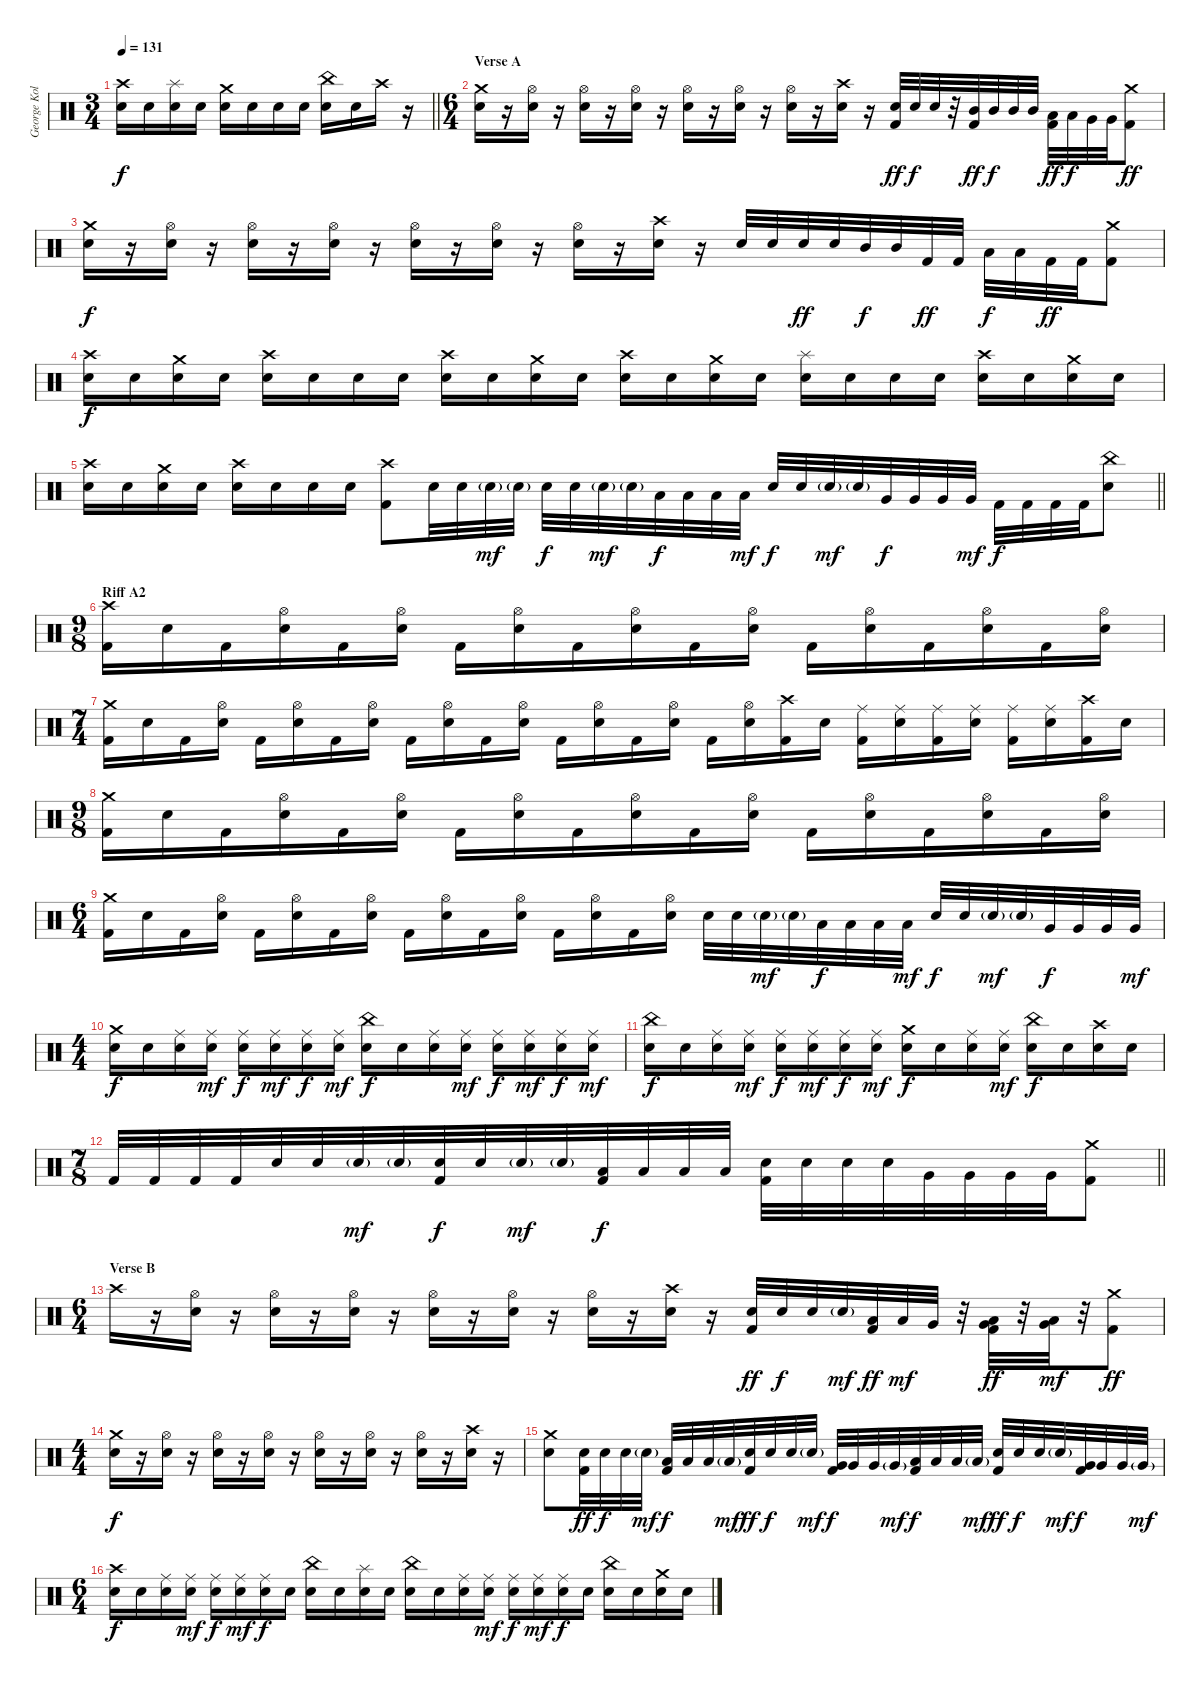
\track ("George Kollias" "George Kol") {instrument percussion}
\staff {score}
\articulation defaults
\ts (3 4)
\tempo 131
\clef neutral
\barLineRight lightlight
\ks c
("Crash high (hit)" "Electric Snare (hit)").16{dy f} "Electric Snare (hit)".16 ("Splash (hit)" "Electric Snare (hit)").16 "Electric Snare (hit)".16 ("Crash medium (hit)" "Electric Snare (hit)").16 "Electric Snare (hit)".16 "Electric Snare (hit)".16 "Electric Snare (hit)".16 ("China (hit)" "Electric Snare (hit)").16 "Electric Snare (hit)".16 "Crash high (hit)".16 r.16 |
\ts (6 4)
\section ("" "Verse A")
("Crash medium (hit)" "Electric Snare (hit)").16 r.16 ("Hi-Hat (open)" "Electric Snare (hit)").16 r.16 ("Hi-Hat (open)" "Electric Snare (hit)").16 r.16 ("Hi-Hat (open)" "Electric Snare (hit)").16 r.16 ("Hi-Hat (open)" "Electric Snare (hit)").16 r.16 ("Hi-Hat (open)" "Electric Snare (hit)").16 r.16 ("Hi-Hat (open)" "Electric Snare (hit)").16 r.16 ("Crash high (hit)" "Electric Snare (hit)").16 r.16 ("Electric Snare (hit)" "Kick (hit) 2").32{dy ff} "Electric Snare (hit)".32{dy f} "Electric Snare (hit)".32 r.32 ("Mid Tom (hit)" "Kick (hit) 2").32{dy ff} "Mid Tom (hit)".32{dy f} "Mid Tom (hit)".32 "Mid Tom (hit)".32 ("Low Tom (hit)" "Kick (hit) 2").32{dy ff} "Low Tom (hit)".32{dy f} "Very Low Tom (hit)".32 "Very Low Tom (hit)".32 ("Crash medium (hit)" "Kick (hit) 2").8{dy ff} |
("Crash medium (hit)" "Electric Snare (hit)").16{dy f} r.16 ("Hi-Hat (open)" "Electric Snare (hit)").16 r.16 ("Hi-Hat (open)" "Electric Snare (hit)").16 r.16 ("Hi-Hat (open)" "Electric Snare (hit)").16 r.16 ("Hi-Hat (open)" "Electric Snare (hit)").16 r.16 ("Hi-Hat (open)" "Electric Snare (hit)").16 r.16 ("Hi-Hat (open)" "Electric Snare (hit)").16 r.16 ("Crash high (hit)" "Electric Snare (hit)").16 r.16 "Electric Snare (hit)".32 "Electric Snare (hit)".32 "Electric Snare (hit)".32{dy ff} "Electric Snare (hit)".32 "Mid Tom (hit)".32{dy f} "Mid Tom (hit)".32 "Kick (hit) 2".32{dy ff} "Kick (hit) 2".32 "Low Tom (hit)".32{dy f} "Low Tom (hit)".32 "Kick (hit) 2".32{dy ff} "Kick (hit) 2".32 ("Crash medium (hit)" "Kick (hit) 2").8 |
("Crash high (hit)" "Electric Snare (hit)").16{dy f} "Electric Snare (hit)".16 ("Crash medium (hit)" "Electric Snare (hit)").16 "Electric Snare (hit)".16 ("Crash high (hit)" "Electric Snare (hit)").16 "Electric Snare (hit)".16 "Electric Snare (hit)".16 "Electric Snare (hit)".16 ("Crash high (hit)" "Electric Snare (hit)").16 "Electric Snare (hit)".16 ("Crash medium (hit)" "Electric Snare (hit)").16 "Electric Snare (hit)".16 ("Crash high (hit)" "Electric Snare (hit)").16 "Electric Snare (hit)".16 ("Crash medium (hit)" "Electric Snare (hit)").16 "Electric Snare (hit)".16 ("Splash (hit)" "Electric Snare (hit)").16 "Electric Snare (hit)".16 "Electric Snare (hit)".16 "Electric Snare (hit)".16 ("Crash high (hit)" "Electric Snare (hit)").16 "Electric Snare (hit)".16 ("Crash medium (hit)" "Electric Snare (hit)").16 "Electric Snare (hit)".16 |
\barLineRight lightlight
("Crash high (hit)" "Electric Snare (hit)").16 "Electric Snare (hit)".16 ("Crash medium (hit)" "Electric Snare (hit)").16 "Electric Snare (hit)".16 ("Crash high (hit)" "Electric Snare (hit)").16 "Electric Snare (hit)".16 "Electric Snare (hit)".16 "Electric Snare (hit)".16 ("Crash high (hit)" "Kick (hit) 2").8 "Electric Snare (hit)".32 "Electric Snare (hit)".32 "Electric Snare (hit)"{g}.32{dy mf} "Electric Snare (hit)"{g}.32 "Electric Snare (hit)".32{dy f} "Electric Snare (hit)".32 "Electric Snare (hit)"{g}.32{dy mf} "Electric Snare (hit)"{g}.32 "Low Tom (hit)".32{dy f} "Low Tom (hit)".32 "Low Tom (hit)".32 "Low Tom (hit)".32{dy mf} "Electric Snare (hit)".32{dy f} "Electric Snare (hit)".32 "Electric Snare (hit)"{g}.32{dy mf} "Electric Snare (hit)"{g}.32 "Very Low Tom (hit)".32{dy f} "Very Low Tom (hit)".32 "Very Low Tom (hit)".32 "Very Low Tom (hit)".32{dy mf} "Kick (hit) 2".32{dy f} "Kick (hit) 2".32 "Kick (hit) 2".32 "Kick (hit) 2".32 ("China (hit)" "Electric Snare (hit)").8 |
\ts (9 8)
\section ("" "Riff A2")
("Crash high (hit)" "Kick (hit) 2").16 "Electric Snare (hit)".16 "Kick (hit) 2".16 ("Hi-Hat (open)" "Electric Snare (hit)").16 "Kick (hit) 2".16 ("Hi-Hat (open)" "Electric Snare (hit)").16 "Kick (hit) 2".16 ("Hi-Hat (open)" "Electric Snare (hit)").16 "Kick (hit) 2".16 ("Hi-Hat (open)" "Electric Snare (hit)").16 "Kick (hit) 2".16 ("Hi-Hat (open)" "Electric Snare (hit)").16 "Kick (hit) 2".16 ("Hi-Hat (open)" "Electric Snare (hit)").16 "Kick (hit) 2".16 ("Hi-Hat (open)" "Electric Snare (hit)").16 "Kick (hit) 2".16 ("Hi-Hat (open)" "Electric Snare (hit)").16 |
\ts (7 4)
("Crash medium (hit)" "Kick (hit) 2").16 "Electric Snare (hit)".16 "Kick (hit) 2".16 ("Hi-Hat (open)" "Electric Snare (hit)").16 "Kick (hit) 2".16 ("Hi-Hat (open)" "Electric Snare (hit)").16 "Kick (hit) 2".16 ("Hi-Hat (open)" "Electric Snare (hit)").16 "Kick (hit) 2".16 ("Hi-Hat (open)" "Electric Snare (hit)").16 "Kick (hit) 2".16 ("Hi-Hat (open)" "Electric Snare (hit)").16 "Kick (hit) 2".16 ("Hi-Hat (open)" "Electric Snare (hit)").16 "Kick (hit) 2".16 ("Hi-Hat (open)" "Electric Snare (hit)").16 "Kick (hit) 2".16 ("Hi-Hat (open)" "Electric Snare (hit)").16 ("Crash high (hit)" "Kick (hit) 2").16 "Electric Snare (hit)".16 ("Ride (middle)" "Kick (hit) 2").16 ("Ride (middle)" "Electric Snare (hit)").16 ("Ride (middle)" "Kick (hit) 2").16 ("Ride (middle)" "Electric Snare (hit)").16 ("Ride (middle)" "Kick (hit) 2").16 ("Ride (middle)" "Electric Snare (hit)").16 ("Crash high (hit)" "Kick (hit) 2").16 "Electric Snare (hit)".16 |
\ts (9 8)
("Crash medium (hit)" "Kick (hit) 2").16 "Electric Snare (hit)".16 "Kick (hit) 2".16 ("Hi-Hat (open)" "Electric Snare (hit)").16 "Kick (hit) 2".16 ("Hi-Hat (open)" "Electric Snare (hit)").16 "Kick (hit) 2".16 ("Hi-Hat (open)" "Electric Snare (hit)").16 "Kick (hit) 2".16 ("Hi-Hat (open)" "Electric Snare (hit)").16 "Kick (hit) 2".16 ("Hi-Hat (open)" "Electric Snare (hit)").16 "Kick (hit) 2".16 ("Hi-Hat (open)" "Electric Snare (hit)").16 "Kick (hit) 2".16 ("Hi-Hat (open)" "Electric Snare (hit)").16 "Kick (hit) 2".16 ("Hi-Hat (open)" "Electric Snare (hit)").16 |
\ts (6 4)
("Crash medium (hit)" "Kick (hit) 2").16 "Electric Snare (hit)".16 "Kick (hit) 2".16 ("Hi-Hat (open)" "Electric Snare (hit)").16 "Kick (hit) 2".16 ("Hi-Hat (open)" "Electric Snare (hit)").16 "Kick (hit) 2".16 ("Hi-Hat (open)" "Electric Snare (hit)").16 "Kick (hit) 2".16 ("Hi-Hat (open)" "Electric Snare (hit)").16 "Kick (hit) 2".16 ("Hi-Hat (open)" "Electric Snare (hit)").16 "Kick (hit) 2".16 ("Hi-Hat (open)" "Electric Snare (hit)").16 "Kick (hit) 2".16 ("Hi-Hat (open)" "Electric Snare (hit)").16 "Electric Snare (hit)".32 "Electric Snare (hit)".32 "Electric Snare (hit)"{g}.32{dy mf} "Electric Snare (hit)"{g}.32 "Low Tom (hit)".32{dy f} "Low Tom (hit)".32 "Low Tom (hit)".32 "Low Tom (hit)".32{dy mf} "Electric Snare (hit)".32{dy f} "Electric Snare (hit)".32 "Electric Snare (hit)"{g}.32{dy mf} "Electric Snare (hit)"{g}.32 "Very Low Tom (hit)".32{dy f} "Very Low Tom (hit)".32 "Very Low Tom (hit)".32 "Very Low Tom (hit)".32{dy mf} |
\ts (4 4)
("Crash medium (hit)" "Electric Snare (hit)").16{dy f} "Electric Snare (hit)".16 ("Ride (middle)" "Electric Snare (hit)").16 ("Ride (middle)" "Electric Snare (hit)").16{dy mf} ("Ride (middle)" "Electric Snare (hit)").16{dy f} ("Ride (middle)" "Electric Snare (hit)").16{dy mf} ("Ride (middle)" "Electric Snare (hit)").16{dy f} ("Ride (middle)" "Electric Snare (hit)").16{dy mf} ("China (hit)" "Electric Snare (hit)").16{dy f} "Electric Snare (hit)".16 ("Ride (middle)" "Electric Snare (hit)").16 ("Ride (middle)" "Electric Snare (hit)").16{dy mf} ("Ride (middle)" "Electric Snare (hit)").16{dy f} ("Ride (middle)" "Electric Snare (hit)").16{dy mf} ("Ride (middle)" "Electric Snare (hit)").16{dy f} ("Ride (middle)" "Electric Snare (hit)").16{dy mf} |
("China (hit)" "Electric Snare (hit)").16{dy f} "Electric Snare (hit)".16 ("Ride (middle)" "Electric Snare (hit)").16 ("Ride (middle)" "Electric Snare (hit)").16{dy mf} ("Ride (middle)" "Electric Snare (hit)").16{dy f} ("Ride (middle)" "Electric Snare (hit)").16{dy mf} ("Ride (middle)" "Electric Snare (hit)").16{dy f} ("Ride (middle)" "Electric Snare (hit)").16{dy mf} ("Crash medium (hit)" "Electric Snare (hit)").16{dy f} "Electric Snare (hit)".16 ("Ride (middle)" "Electric Snare (hit)").16 ("Ride (middle)" "Electric Snare (hit)").16{dy mf} ("China (hit)" "Electric Snare (hit)").16{dy f} "Electric Snare (hit)".16 ("Crash high (hit)" "Electric Snare (hit)").16 "Electric Snare (hit)".16 |
\ts (7 8)
\barLineRight lightlight "Kick (hit) 2".32 "Kick (hit) 2".32 "Kick (hit) 2".32 "Kick (hit) 2".32 "Electric Snare (hit)".32 "Electric Snare (hit)".32 "Electric Snare (hit)"{g}.32{dy mf} "Electric Snare (hit)"{g}.32
("Electric Snare (hit)" "Kick (hit) 2").32{dy f} "Electric Snare (hit)".32 "Electric Snare (hit)"{g}.32{dy mf} "Electric Snare (hit)"{g}.32 ("Low Tom (hit)" "Kick (hit) 2").32{dy f} "Low Tom (hit)".32 "Low Tom (hit)".32 "Low Tom (hit)".32 ("Electric Snare (hit)" "Kick (hit) 2").32 "Electric Snare (hit)".32 "Electric Snare (hit)".32 "Electric Snare (hit)".32 "Very Low Tom (hit)".32 "Very Low Tom (hit)".32 "Very Low Tom (hit)".32 "Very Low Tom (hit)".32 ("Crash medium (hit)" "Kick (hit) 2").8 |
\ts (6 4)
\section ("" "Verse B")
"Crash high (hit)".16 r.16 ("Hi-Hat (open)" "Electric Snare (hit)").16 r.16 ("Hi-Hat (open)" "Electric Snare (hit)").16 r.16 ("Hi-Hat (open)" "Electric Snare (hit)").16 r.16 ("Hi-Hat (open)" "Electric Snare (hit)").16 r.16 ("Hi-Hat (open)" "Electric Snare (hit)").16 r.16 ("Hi-Hat (open)" "Electric Snare (hit)").16 r.16 ("Crash high (hit)" "Electric Snare (hit)").16 r.16 ("Electric Snare (hit)" "Kick (hit) 2").32{dy ff} "Electric Snare (hit)".32{dy f} "Electric Snare (hit)".32 "Electric Snare (hit)"{g}.32{dy mf} ("Low Tom (hit)" "Kick (hit) 2").32{dy ff} "Low Tom (hit)".32{dy mf} "Very Low Tom (hit)".32 r.32 ("Low Tom (hit)" "Very Low Tom (hit)" "Kick (hit) 2").32{dy ff} r.32 ("Very Low Tom (hit)" "Low Floor Tom (hit)").32{dy mf} r.32 ("Crash medium (hit)" "Kick (hit) 2").8{dy ff} |
\ts (4 4)
("Crash medium (hit)" "Electric Snare (hit)").16{dy f} r.16 ("Hi-Hat (open)" "Electric Snare (hit)").16 r.16 ("Hi-Hat (open)" "Electric Snare (hit)").16 r.16 ("Hi-Hat (open)" "Electric Snare (hit)").16 r.16 ("Hi-Hat (open)" "Electric Snare (hit)").16 r.16 ("Hi-Hat (open)" "Electric Snare (hit)").16 r.16 ("Hi-Hat (open)" "Electric Snare (hit)").16 r.16 ("Crash high (hit)" "Electric Snare (hit)").16 r.16 |
("Crash medium (hit)" "Electric Snare (hit)").8 ("Electric Snare (hit)" "Kick (hit) 2").32{dy ff} "Electric Snare (hit)".32{dy f} "Electric Snare (hit)".32 "Electric Snare (hit)"{g}.32{dy mf} ("Low Tom (hit)" "Kick (hit) 2").32{dy f} "Low Tom (hit)".32 "Low Tom (hit)".32 "Low Tom (hit)"{g}.32{dy mf} ("Electric Snare (hit)" "Kick (hit) 2").32{dy ff} "Electric Snare (hit)".32{dy f} "Electric Snare (hit)".32 "Electric Snare (hit)"{g}.32{dy mf} ("Very Low Tom (hit)" "Kick (hit) 2").32{dy f} "Very Low Tom (hit)".32 "Very Low Tom (hit)".32 "Very Low Tom (hit)"{g}.32{dy mf} ("Low Floor Tom (hit)" "Kick (hit) 2").32{dy f} "Low Floor Tom (hit)".32 "Low Floor Tom (hit)".32 "Low Floor Tom (hit)"{g}.32{dy mf} ("Electric Snare (hit)" "Kick (hit) 2").32{dy ff} "Electric Snare (hit)".32{dy f} "Electric Snare (hit)".32 "Electric Snare (hit)"{g}.32{dy mf} ("Very Low Tom (hit)" "Kick (hit) 2").32{dy f} "Very Low Tom (hit)".32 "Very Low Tom (hit)".32 "Very Low Tom (hit)"{g}.32{dy mf} |
\ts (6 4)
("Crash high (hit)" "Electric Snare (hit)").16{dy f} "Electric Snare (hit)".16 ("Ride (middle)" "Electric Snare (hit)").16 ("Ride (middle)" "Electric Snare (hit)").16{dy mf} ("Ride (middle)" "Electric Snare (hit)").16{dy f} ("Ride (middle)" "Electric Snare (hit)").16{dy mf} ("Ride (middle)" "Electric Snare (hit)").16{dy f} "Electric Snare (hit)".16 ("China (hit)" "Electric Snare (hit)").16 "Electric Snare (hit)".16 ("Splash (hit)" "Electric Snare (hit)").16 "Electric Snare (hit)".16 ("China (hit)" "Electric Snare (hit)").16 "Electric Snare (hit)".16 ("Ride (middle)" "Electric Snare (hit)").16 ("Ride (middle)" "Electric Snare (hit)").16{dy mf} ("Ride (middle)" "Electric Snare (hit)").16{dy f} ("Ride (middle)" "Electric Snare (hit)").16{dy mf} ("Ride (middle)" "Electric Snare (hit)").16{dy f} "Electric Snare (hit)".16 ("China (hit)" "Electric Snare (hit)").16 "Electric Snare (hit)".16 ("Crash medium (hit)" "Electric Snare (hit)").16 "Electric Snare (hit)".16
